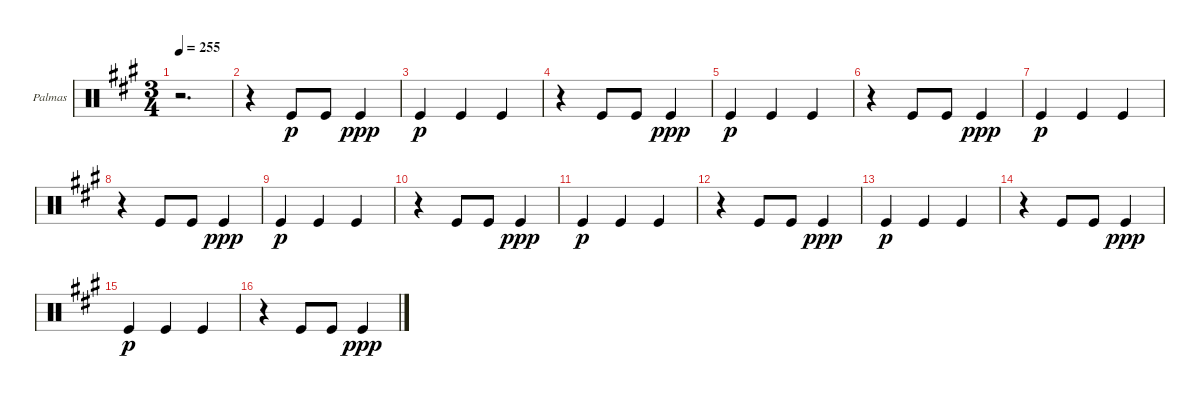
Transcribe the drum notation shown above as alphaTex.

\defaultSystemsLayout 4
\bracketExtendMode groupsimilarinstruments
\firstSystemTrackNameOrientation horizontal
\otherSystemsTrackNameOrientation horizontal
\track ("Palmas" "Palmas") {instrument percussion}
\staff {score}
\articulation defaults
\ts (3 4)
\tempo 255
\clef neutral
\scale
0.474178
\ks a
r.2{d dy p} |
\scale
0.262911 r.4 "Kick (hit)".8 "Kick (hit)".8 "Kick (hit)".4{dy ppp} |
\scale
0.262911 "Kick (hit)".4{dy p} "Kick (hit)".4 "Kick (hit)".4 |
\scale
0.333333 r.4 "Kick (hit)".8 "Kick (hit)".8 "Kick (hit)".4{dy ppp} |
\scale
0.333333 "Kick (hit)".4{dy p} "Kick (hit)".4 "Kick (hit)".4 |
\scale
0.333333 r.4 "Kick (hit)".8 "Kick (hit)".8 "Kick (hit)".4{dy ppp} |
\scale
0.333333 "Kick (hit)".4{dy p} "Kick (hit)".4 "Kick (hit)".4 |
\scale
0.333333 r.4 "Kick (hit)".8 "Kick (hit)".8 "Kick (hit)".4{dy ppp} |
\scale
0.333333 "Kick (hit)".4{dy p} "Kick (hit)".4 "Kick (hit)".4 |
\scale
0.333333 r.4 "Kick (hit)".8 "Kick (hit)".8 "Kick (hit)".4{dy ppp} |
\scale
0.333333 "Kick (hit)".4{dy p} "Kick (hit)".4 "Kick (hit)".4 |
\scale
0.333333 r.4 "Kick (hit)".8 "Kick (hit)".8 "Kick (hit)".4{dy ppp} |
\scale
0.333333 "Kick (hit)".4{dy p} "Kick (hit)".4 "Kick (hit)".4 |
\scale
0.333333 r.4 "Kick (hit)".8 "Kick (hit)".8 "Kick (hit)".4{dy ppp} |
\scale
0.333333 "Kick (hit)".4{dy p} "Kick (hit)".4 "Kick (hit)".4 |
\scale
0.333333 r.4 "Kick (hit)".8 "Kick (hit)".8 "Kick (hit)".4{dy ppp}
